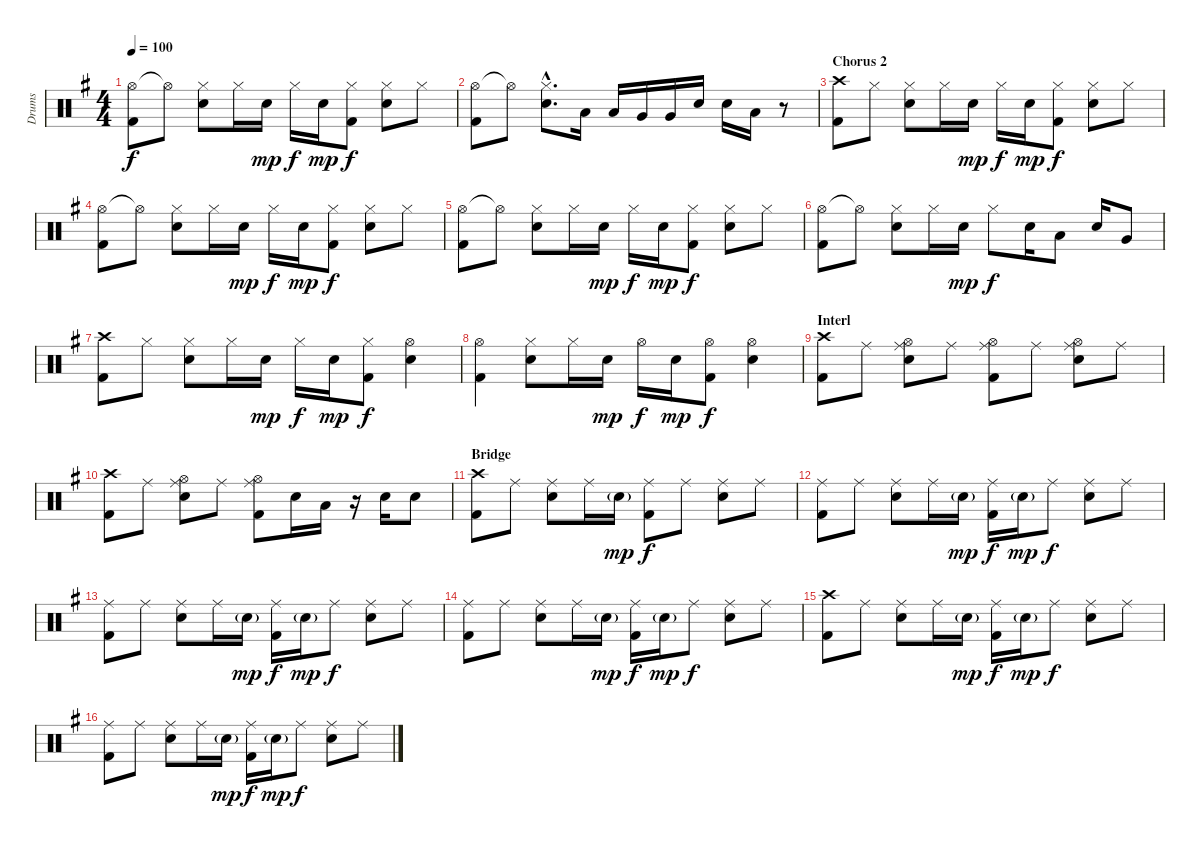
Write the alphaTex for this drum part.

\track ("Drums" "Drums") {instrument percussion}
\staff {score}
\articulation defaults
\ts (4 4)
\tempo 100
\clef neutral
\ks g
("Hi-Hat (open)" "Kick (hit) 2").8{dy f} "Hi-Hat (open)"{t}.8 ("Hi-Hat (closed)" "Snare (hit) 2").8 "Hi-Hat (closed)".16 "Snare (hit) 2".16{dy mp} "Hi-Hat (closed)".16{dy f} "Snare (hit) 2".16{dy mp} ("Hi-Hat (closed)" "Kick (hit) 2").8{dy f} ("Hi-Hat (closed)" "Snare (hit) 2").8 "Hi-Hat (closed)".8 |
("Hi-Hat (open)" "Kick (hit) 2").8 "Hi-Hat (open)"{t}.8 ("Hi-Hat (closed)"{hac} "Snare (hit) 2"{hac}).8{d} "Low Tom (hit)".16 "Low Tom (hit)".16 "Very Low Tom (hit)".16 "Very Low Tom (hit)".16 "Snare (hit) 2".16 "Snare (hit) 2".16 "Low Tom (hit)".16 r.8 |
\section ("" "Chorus 2")
("Crash high (hit)" "Kick (hit) 2").8 "Hi-Hat (closed)".8 ("Hi-Hat (closed)" "Snare (hit) 2").8 "Hi-Hat (closed)".16 "Snare (hit) 2".16{dy mp} "Hi-Hat (closed)".16{dy f} "Snare (hit) 2".16{dy mp} ("Hi-Hat (closed)" "Kick (hit) 2").8{dy f} ("Hi-Hat (closed)" "Snare (hit) 2").8 "Hi-Hat (closed)".8 |
("Hi-Hat (open)" "Kick (hit) 2").8 "Hi-Hat (open)"{t}.8 ("Hi-Hat (closed)" "Snare (hit) 2").8 "Hi-Hat (closed)".16 "Snare (hit) 2".16{dy mp} "Hi-Hat (closed)".16{dy f} "Snare (hit) 2".16{dy mp} ("Hi-Hat (closed)" "Kick (hit) 2").8{dy f} ("Hi-Hat (closed)" "Snare (hit) 2").8 "Hi-Hat (closed)".8 |
("Hi-Hat (open)" "Kick (hit) 2").8 "Hi-Hat (open)"{t}.8 ("Hi-Hat (closed)" "Snare (hit) 2").8 "Hi-Hat (closed)".16 "Snare (hit) 2".16{dy mp} "Hi-Hat (closed)".16{dy f} "Snare (hit) 2".16{dy mp} ("Hi-Hat (closed)" "Kick (hit) 2").8{dy f} ("Hi-Hat (closed)" "Snare (hit) 2").8 "Hi-Hat (closed)".8 |
("Hi-Hat (open)" "Kick (hit) 2").8 "Hi-Hat (open)"{t}.8 ("Hi-Hat (closed)" "Snare (hit) 2").8 "Hi-Hat (closed)".16 "Snare (hit) 2".16{dy mp} "Hi-Hat (closed)".8{dy f} "Snare (hit) 2".16 "Low Tom (hit)".8 "Snare (hit) 2".16 "Very Low Tom (hit)".8 |
("Crash high (hit)" "Kick (hit) 2").8 "Hi-Hat (closed)".8 ("Hi-Hat (closed)" "Snare (hit) 2").8 "Hi-Hat (closed)".16 "Snare (hit) 2".16{dy mp} "Hi-Hat (closed)".16{dy f} "Snare (hit) 2".16{dy mp} ("Hi-Hat (closed)" "Kick (hit) 2").8{dy f} ("Hi-Hat (open)" "Snare (hit) 2").4 |
("Hi-Hat (open)" "Kick (hit) 2").4 ("Hi-Hat (closed)" "Snare (hit) 2").8 "Hi-Hat (closed)".16 "Snare (hit) 2".16{dy mp} "Hi-Hat (open)".16{dy f} "Snare (hit) 2".16{dy mp} ("Hi-Hat (open)" "Kick (hit) 2").8{dy f} ("Hi-Hat (open)" "Snare (hit) 2").4 |
\section ("" "Interl")
("Crash high (hit)" "Kick (hit) 2").8 "Ride (middle)".8 ("Hi-Hat (open)" "Ride (middle)" "Snare (hit) 2").8 "Ride (middle)".8 ("Hi-Hat (open)" "Ride (middle)" "Kick (hit) 2").8 "Ride (middle)".8 ("Hi-Hat (open)" "Ride (middle)" "Snare (hit) 2").8 "Ride (middle)".8 |
("Crash high (hit)" "Kick (hit) 2").8 "Ride (middle)".8 ("Hi-Hat (open)" "Ride (middle)" "Snare (hit) 2").8 "Ride (middle)".8 ("Hi-Hat (open)" "Ride (middle)" "Kick (hit) 2").8 "Snare (hit) 2".16 "Low Tom (hit)".16 r.16 "Snare (hit) 2".16 "Snare (hit) 2".8 |
\section ("" "Bridge")
("Crash high (hit)" "Kick (hit) 2").8 "Ride (middle)".8 ("Ride (middle)" "Snare (hit) 2").8 "Ride (middle)".16 "Snare (hit) 2"{g}.16{dy mp} ("Ride (middle)" "Kick (hit) 2").8{dy f} "Ride (middle)".8 ("Ride (middle)" "Snare (hit) 2").8 "Ride (middle)".8 |
("Ride (middle)" "Kick (hit) 2").8 "Ride (middle)".8 ("Ride (middle)" "Snare (hit) 2").8 "Ride (middle)".16 "Snare (hit) 2"{g}.16{dy mp} ("Ride (middle)" "Kick (hit) 2").16{dy f} "Snare (hit) 2"{g}.16{dy mp} "Ride (middle)".8{dy f} ("Ride (middle)" "Snare (hit) 2").8 "Ride (middle)".8 |
("Ride (middle)" "Kick (hit) 2").8 "Ride (middle)".8 ("Ride (middle)" "Snare (hit) 2").8 "Ride (middle)".16 "Snare (hit) 2"{g}.16{dy mp} ("Ride (middle)" "Kick (hit) 2").16{dy f} "Snare (hit) 2"{g}.16{dy mp} "Ride (middle)".8{dy f} ("Ride (middle)" "Snare (hit) 2").8 "Ride (middle)".8 |
("Ride (middle)" "Kick (hit) 2").8 "Ride (middle)".8 ("Ride (middle)" "Snare (hit) 2").8 "Ride (middle)".16 "Snare (hit) 2"{g}.16{dy mp} ("Ride (middle)" "Kick (hit) 2").16{dy f} "Snare (hit) 2"{g}.16{dy mp} "Ride (middle)".8{dy f} ("Ride (middle)" "Snare (hit) 2").8 "Ride (middle)".8 |
("Crash high (hit)" "Kick (hit) 2").8 "Ride (middle)".8 ("Ride (middle)" "Snare (hit) 2").8 "Ride (middle)".16 "Snare (hit) 2"{g}.16{dy mp} ("Ride (middle)" "Kick (hit) 2").16{dy f} "Snare (hit) 2"{g}.16{dy mp} "Ride (middle)".8{dy f} ("Ride (middle)" "Snare (hit) 2").8 "Ride (middle)".8 |
("Ride (middle)" "Kick (hit) 2").8 "Ride (middle)".8 ("Ride (middle)" "Snare (hit) 2").8 "Ride (middle)".16 "Snare (hit) 2"{g}.16{dy mp} ("Ride (middle)" "Kick (hit) 2").16{dy f} "Snare (hit) 2"{g}.16{dy mp} "Ride (middle)".8{dy f} ("Ride (middle)" "Snare (hit) 2").8 "Ride (middle)".8
